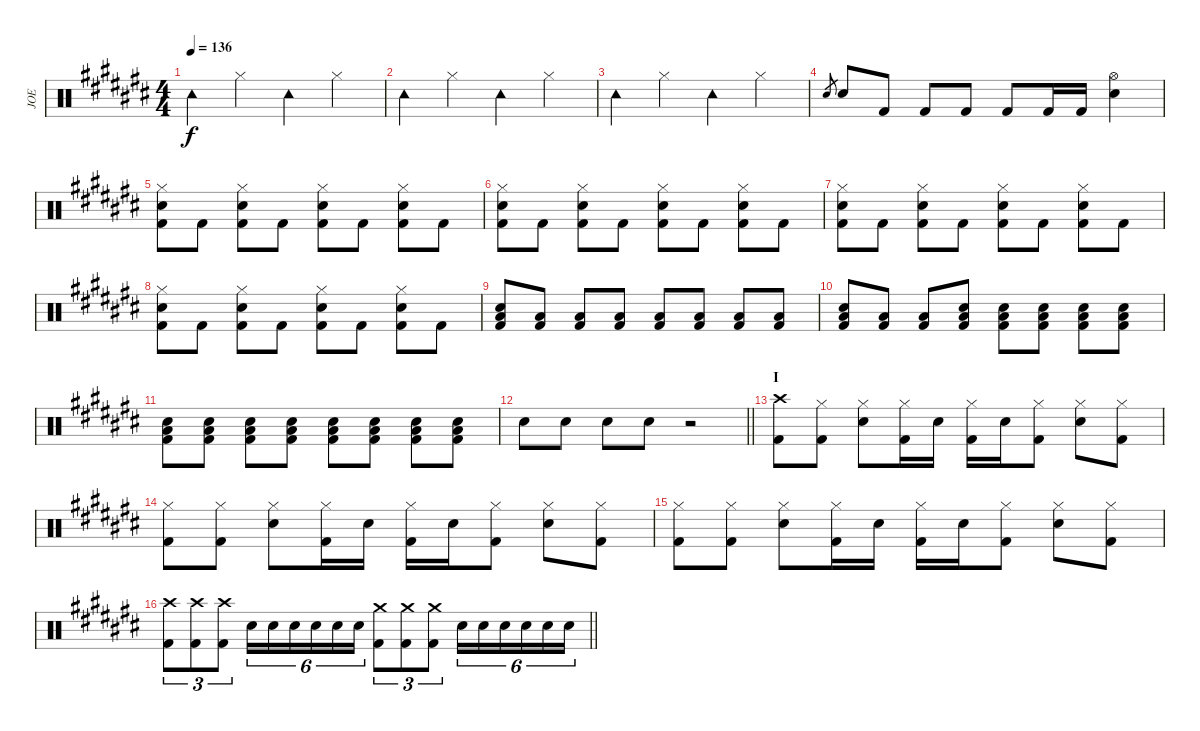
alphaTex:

\track ("JOE" "JOE") {instrument percussion}
\staff {score}
\articulation defaults
\ts (4 4)
\tempo 136
\clef neutral
\ks c# "Tambourine (hit)".4{dy f} "Hi-Hat (closed)".4 "Tambourine (hit)".4 "Hi-Hat (closed)".4
|
"Tambourine (hit)".4 "Hi-Hat (closed)".4 "Tambourine (hit)".4 "Hi-Hat (closed)".4 |
"Tambourine (hit)".4 "Hi-Hat (closed)".4 "Tambourine (hit)".4 "Hi-Hat (closed)".4 |
"Snare (hit) 2".8{gr} "Snare (hit) 2".8 "Kick (hit) 2".8 "Kick (hit) 2".8 "Kick (hit) 2".8 "Kick (hit) 2".8 "Kick (hit) 2".16 "Kick (hit) 2".16 ("Hi-Hat (open)" "Snare (hit) 2").4 |
("Hi-Hat (closed)" "Snare (hit) 2" "Kick (hit) 2").8 "Kick (hit) 2".8 ("Hi-Hat (closed)" "Snare (hit) 2" "Kick (hit) 2").8 "Kick (hit) 2".8 ("Hi-Hat (closed)" "Snare (hit) 2" "Kick (hit) 2").8 "Kick (hit) 2".8 ("Hi-Hat (closed)" "Snare (hit) 2" "Kick (hit) 2").8 "Kick (hit) 2".8 |
("Hi-Hat (closed)" "Snare (hit) 2" "Kick (hit) 2").8 "Kick (hit) 2".8 ("Hi-Hat (closed)" "Snare (hit) 2" "Kick (hit) 2").8 "Kick (hit) 2".8 ("Hi-Hat (closed)" "Snare (hit) 2" "Kick (hit) 2").8 "Kick (hit) 2".8 ("Hi-Hat (closed)" "Snare (hit) 2" "Kick (hit) 2").8 "Kick (hit) 2".8 |
("Hi-Hat (closed)" "Snare (hit) 2" "Kick (hit) 2").8 "Kick (hit) 2".8 ("Hi-Hat (closed)" "Snare (hit) 2" "Kick (hit) 2").8 "Kick (hit) 2".8 ("Hi-Hat (closed)" "Snare (hit) 2" "Kick (hit) 2").8 "Kick (hit) 2".8 ("Hi-Hat (closed)" "Snare (hit) 2" "Kick (hit) 2").8 "Kick (hit) 2".8 |
("Hi-Hat (closed)" "Snare (hit) 2" "Kick (hit) 2").8 "Kick (hit) 2".8 ("Hi-Hat (closed)" "Snare (hit) 2" "Kick (hit) 2").8 "Kick (hit) 2".8 ("Hi-Hat (closed)" "Snare (hit) 2" "Kick (hit) 2").8 "Kick (hit) 2".8 ("Hi-Hat (closed)" "Snare (hit) 2" "Kick (hit) 2").8 "Kick (hit) 2".8 |
("Snare (hit) 2" "Kick (hit) 2" "Low Floor Tom (hit)").8 ("Kick (hit) 2" "Low Floor Tom (hit)").8 ("Kick (hit) 2" "Low Floor Tom (hit)").8 ("Kick (hit) 2" "Low Floor Tom (hit)").8 ("Kick (hit) 2" "Low Floor Tom (hit)").8 ("Kick (hit) 2" "Low Floor Tom (hit)").8 ("Kick (hit) 2" "Low Floor Tom (hit)").8 ("Kick (hit) 2" "Low Floor Tom (hit)").8 |
("Snare (hit) 2" "Kick (hit) 2" "Low Floor Tom (hit)").8 ("Kick (hit) 2" "Low Floor Tom (hit)").8 ("Kick (hit) 2" "Low Floor Tom (hit)").8 ("Snare (hit) 2" "Kick (hit) 2" "Low Floor Tom (hit)").8 ("Snare (hit) 2" "Kick (hit) 2" "Low Floor Tom (hit)").8 ("Snare (hit) 2" "Kick (hit) 2" "Low Floor Tom (hit)").8 ("Snare (hit) 2" "Kick (hit) 2" "Low Floor Tom (hit)").8 ("Snare (hit) 2" "Kick (hit) 2" "Low Floor Tom (hit)").8 |
("Snare (hit) 2" "Kick (hit) 2" "Low Floor Tom (hit)").8 ("Snare (hit) 2" "Kick (hit) 2" "Low Floor Tom (hit)").8 ("Snare (hit) 2" "Kick (hit) 2" "Low Floor Tom (hit)").8 ("Snare (hit) 2" "Kick (hit) 2" "Low Floor Tom (hit)").8 ("Snare (hit) 2" "Kick (hit) 2" "Low Floor Tom (hit)").8 ("Snare (hit) 2" "Kick (hit) 2" "Low Floor Tom (hit)").8 ("Snare (hit) 2" "Kick (hit) 2" "Low Floor Tom (hit)").8 ("Snare (hit) 2" "Kick (hit) 2" "Low Floor Tom (hit)").8 |
\barLineRight lightlight "Snare (hit) 2".8 "Snare (hit) 2".8 "Snare (hit) 2".8 "Snare (hit) 2".8
r.2 |
\section ("" "I")
("Crash high (hit)" "Kick (hit) 2").8 ("Hi-Hat (closed)" "Kick (hit) 2").8 ("Hi-Hat (closed)" "Snare (hit) 2").8 ("Hi-Hat (closed)" "Kick (hit) 2").16 "Snare (hit) 2".16 ("Hi-Hat (closed)" "Kick (hit) 2").16 "Snare (hit) 2".16 ("Hi-Hat (closed)" "Kick (hit) 2").8 ("Hi-Hat (closed)" "Snare (hit) 2").8 ("Hi-Hat (closed)" "Kick (hit) 2").8 |
("Hi-Hat (closed)" "Kick (hit) 2").8 ("Hi-Hat (closed)" "Kick (hit) 2").8 ("Hi-Hat (closed)" "Snare (hit) 2").8 ("Hi-Hat (closed)" "Kick (hit) 2").16 "Snare (hit) 2".16 ("Hi-Hat (closed)" "Kick (hit) 2").16 "Snare (hit) 2".16 ("Hi-Hat (closed)" "Kick (hit) 2").8 ("Hi-Hat (closed)" "Snare (hit) 2").8 ("Hi-Hat (closed)" "Kick (hit) 2").8 |
("Hi-Hat (closed)" "Kick (hit) 2").8 ("Hi-Hat (closed)" "Kick (hit) 2").8 ("Hi-Hat (closed)" "Snare (hit) 2").8 ("Hi-Hat (closed)" "Kick (hit) 2").16 "Snare (hit) 2".16 ("Hi-Hat (closed)" "Kick (hit) 2").16 "Snare (hit) 2".16 ("Hi-Hat (closed)" "Kick (hit) 2").8 ("Hi-Hat (closed)" "Snare (hit) 2").8 ("Hi-Hat (closed)" "Kick (hit) 2").8 |
\barLineRight lightlight
("Crash high (hit)" "Kick (hit) 2").8{tu (3 2)} ("Crash high (hit)" "Kick (hit) 2").8{tu (3 2)} ("Crash high (hit)" "Kick (hit) 2").8{tu (3 2)} "Snare (hit) 2".16{tu (6 4)} "Snare (hit) 2".16{tu (6 4)} "Snare (hit) 2".16{tu (6 4)} "Snare (hit) 2".16{tu (6 4)} "Snare (hit) 2".16{tu (6 4)} "Snare (hit) 2".16{tu (6 4)} ("Crash medium (hit)" "Kick (hit) 2").8{tu (3 2)} ("Crash medium (hit)" "Kick (hit) 2").8{tu (3 2)} ("Crash medium (hit)" "Kick (hit) 2").8{tu (3 2)} "Snare (hit) 2".16{tu (6 4)} "Snare (hit) 2".16{tu (6 4)} "Snare (hit) 2".16{tu (6 4)} "Snare (hit) 2".16{tu (6 4)} "Snare (hit) 2".16{tu (6 4)} "Snare (hit) 2".16{tu (6 4)}
